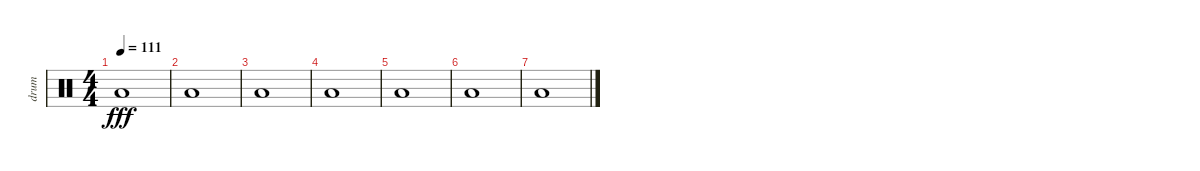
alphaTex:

\track ("drum" "drum") {instrument percussion}
\staff {score}
\articulation defaults
\ts (4 4)
\tempo 111
\clef neutral
\ks c "Low Tom (hit)".1{dy fff}
|
"Low Tom (hit)".1 |
"Low Tom (hit)".1 |
"Low Tom (hit)".1 |
"Low Tom (hit)".1 |
"Low Tom (hit)".1 |
"Low Tom (hit)".1
